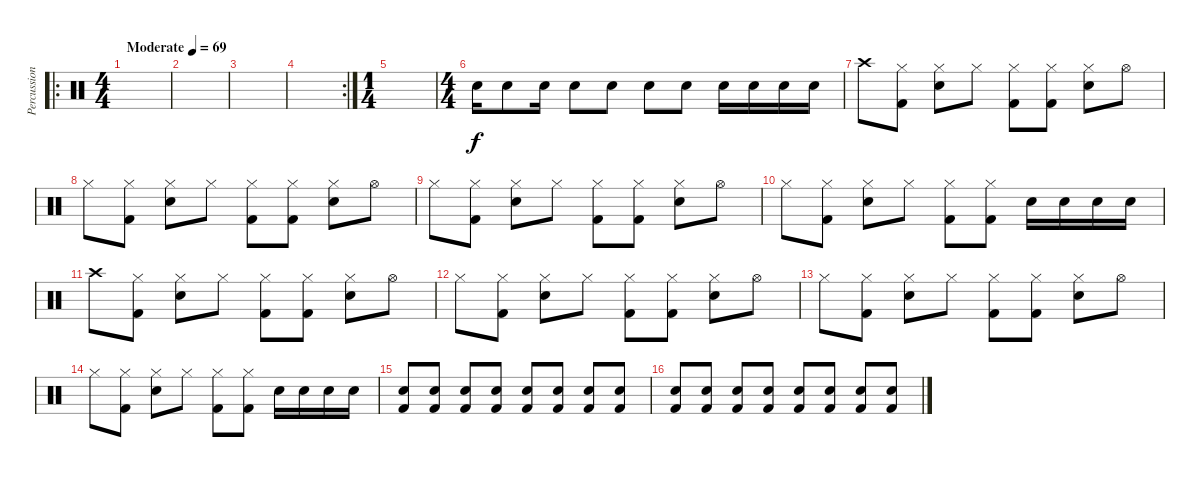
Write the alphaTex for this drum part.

\track ("Percussion" "Percussion") {instrument percussion}
\staff {score}
\articulation defaults
\ro
\ts (4 4)
\tempo (69 "Moderate")
\clef neutral
\ks c
|
|
|
\rc 2
|
\ts (1 4)
|
\ts (4 4)
"Electric Snare (hit)".16 "Electric Snare (hit)".8 "Electric Snare (hit)".16 "Electric Snare (hit)".8 "Electric Snare (hit)".8 "Electric Snare (hit)".8 "Electric Snare (hit)".8 "Electric Snare (hit)".16 "Electric Snare (hit)".16 "Electric Snare (hit)".16 "Electric Snare (hit)".16 |
"Crash high (hit)".8 ("Hi-Hat (closed)" "Kick (hit) 2").8 ("Hi-Hat (closed)" "Electric Snare (hit)").8 "Hi-Hat (closed)".8 ("Hi-Hat (closed)" "Kick (hit) 2").8 ("Hi-Hat (closed)" "Kick (hit) 2").8 ("Hi-Hat (closed)" "Electric Snare (hit)").8 "Hi-Hat (open)".8 |
"Hi-Hat (closed)".8 ("Hi-Hat (closed)" "Kick (hit) 2").8 ("Hi-Hat (closed)" "Electric Snare (hit)").8 "Hi-Hat (closed)".8 ("Hi-Hat (closed)" "Kick (hit) 2").8 ("Hi-Hat (closed)" "Kick (hit) 2").8 ("Hi-Hat (closed)" "Electric Snare (hit)").8 "Hi-Hat (open)".8 |
"Hi-Hat (closed)".8 ("Hi-Hat (closed)" "Kick (hit) 2").8 ("Hi-Hat (closed)" "Electric Snare (hit)").8 "Hi-Hat (closed)".8 ("Hi-Hat (closed)" "Kick (hit) 2").8 ("Hi-Hat (closed)" "Kick (hit) 2").8 ("Hi-Hat (closed)" "Electric Snare (hit)").8 "Hi-Hat (open)".8 |
"Hi-Hat (closed)".8 ("Hi-Hat (closed)" "Kick (hit) 2").8 ("Hi-Hat (closed)" "Electric Snare (hit)").8 "Hi-Hat (closed)".8 ("Hi-Hat (closed)" "Kick (hit) 2").8 ("Hi-Hat (closed)" "Kick (hit) 2").8 "Electric Snare (hit)".16 "Electric Snare (hit)".16 "Electric Snare (hit)".16 "Electric Snare (hit)".16 |
"Crash high (hit)".8 ("Hi-Hat (closed)" "Kick (hit) 2").8 ("Hi-Hat (closed)" "Electric Snare (hit)").8 "Hi-Hat (closed)".8 ("Hi-Hat (closed)" "Kick (hit) 2").8 ("Hi-Hat (closed)" "Kick (hit) 2").8 ("Hi-Hat (closed)" "Electric Snare (hit)").8 "Hi-Hat (open)".8 |
"Hi-Hat (closed)".8 ("Hi-Hat (closed)" "Kick (hit) 2").8 ("Hi-Hat (closed)" "Electric Snare (hit)").8 "Hi-Hat (closed)".8 ("Hi-Hat (closed)" "Kick (hit) 2").8 ("Hi-Hat (closed)" "Kick (hit) 2").8 ("Hi-Hat (closed)" "Electric Snare (hit)").8 "Hi-Hat (open)".8 |
"Hi-Hat (closed)".8 ("Hi-Hat (closed)" "Kick (hit) 2").8 ("Hi-Hat (closed)" "Electric Snare (hit)").8 "Hi-Hat (closed)".8 ("Hi-Hat (closed)" "Kick (hit) 2").8 ("Hi-Hat (closed)" "Kick (hit) 2").8 ("Hi-Hat (closed)" "Electric Snare (hit)").8 "Hi-Hat (open)".8 |
"Hi-Hat (closed)".8 ("Hi-Hat (closed)" "Kick (hit) 2").8 ("Hi-Hat (closed)" "Electric Snare (hit)").8 "Hi-Hat (closed)".8 ("Hi-Hat (closed)" "Kick (hit) 2").8 ("Hi-Hat (closed)" "Kick (hit) 2").8 "Electric Snare (hit)".16 "Electric Snare (hit)".16 "Electric Snare (hit)".16 "Electric Snare (hit)".16 |
("Electric Snare (hit)" "Kick (hit) 2").8{volume 0} ("Electric Snare (hit)" "Kick (hit) 2").8{volume 13} ("Electric Snare (hit)" "Kick (hit) 2").8 ("Electric Snare (hit)" "Kick (hit) 2").8 ("Electric Snare (hit)" "Kick (hit) 2").8 ("Electric Snare (hit)" "Kick (hit) 2").8 ("Electric Snare (hit)" "Kick (hit) 2").8 ("Electric Snare (hit)" "Kick (hit) 2").8 |
("Electric Snare (hit)" "Kick (hit) 2").8 ("Electric Snare (hit)" "Kick (hit) 2").8 ("Electric Snare (hit)" "Kick (hit) 2").8 ("Electric Snare (hit)" "Kick (hit) 2").8 ("Electric Snare (hit)" "Kick (hit) 2").8 ("Electric Snare (hit)" "Kick (hit) 2").8 ("Electric Snare (hit)" "Kick (hit) 2").8 ("Electric Snare (hit)" "Kick (hit) 2").8
